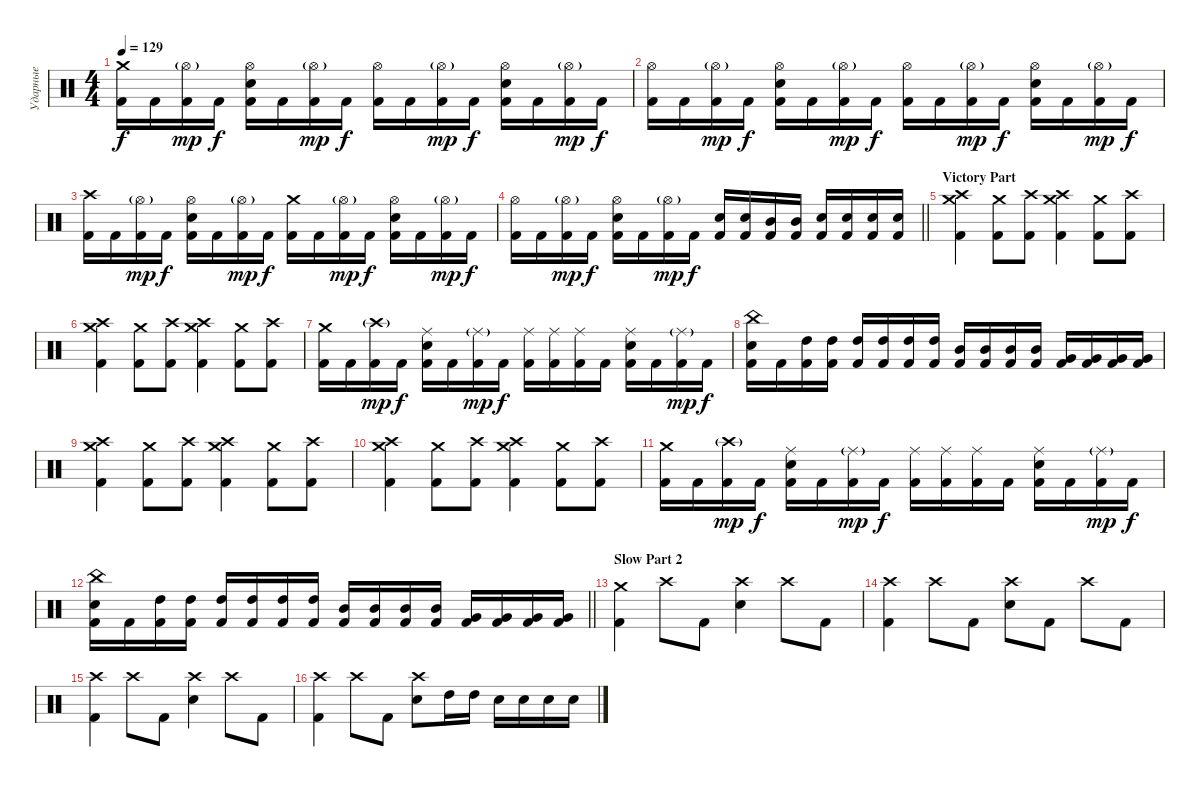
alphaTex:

\track ("Ударные" "Ударные") {instrument percussion}
\staff
\articulation defaults
\ts (4 4)
\tempo 129
\clef neutral
\ks c
("Crash medium (hit)" "Kick (hit) 2").16{dy f} "Kick (hit) 2".16 ("Hi-Hat (open)"{g} "Kick (hit) 2").16{dy mp} "Kick (hit) 2".16{dy f} ("Hi-Hat (open)" "Snare (hit) 2" "Kick (hit) 2").16 "Kick (hit) 2".16 ("Hi-Hat (open)"{g} "Kick (hit) 2").16{dy mp} "Kick (hit) 2".16{dy f} ("Hi-Hat (open)" "Kick (hit) 2").16 "Kick (hit) 2".16 ("Hi-Hat (open)"{g} "Kick (hit) 2").16{dy mp} "Kick (hit) 2".16{dy f} ("Hi-Hat (open)" "Snare (hit) 2" "Kick (hit) 2").16 "Kick (hit) 2".16 ("Hi-Hat (open)"{g} "Kick (hit) 2").16{dy mp} "Kick (hit) 2".16{dy f} |
("Hi-Hat (open)" "Kick (hit) 2").16 "Kick (hit) 2".16 ("Hi-Hat (open)"{g} "Kick (hit) 2").16{dy mp} "Kick (hit) 2".16{dy f} ("Hi-Hat (open)" "Snare (hit) 2" "Kick (hit) 2").16 "Kick (hit) 2".16 ("Hi-Hat (open)"{g} "Kick (hit) 2").16{dy mp} "Kick (hit) 2".16{dy f} ("Hi-Hat (open)" "Kick (hit) 2").16 "Kick (hit) 2".16 ("Hi-Hat (open)"{g} "Kick (hit) 2").16{dy mp} "Kick (hit) 2".16{dy f} ("Hi-Hat (open)" "Snare (hit) 2" "Kick (hit) 2").16 "Kick (hit) 2".16 ("Hi-Hat (open)"{g} "Kick (hit) 2").16{dy mp} "Kick (hit) 2".16{dy f} |
("Crash high (hit)" "Kick (hit) 2").16 "Kick (hit) 2".16 ("Hi-Hat (open)"{g} "Kick (hit) 2").16{dy mp} "Kick (hit) 2".16{dy f} ("Hi-Hat (open)" "Snare (hit) 2" "Kick (hit) 2").16 "Kick (hit) 2".16 ("Hi-Hat (open)"{g} "Kick (hit) 2").16{dy mp} "Kick (hit) 2".16{dy f} ("Crash medium (hit)" "Kick (hit) 2").16 "Kick (hit) 2".16 ("Hi-Hat (open)"{g} "Kick (hit) 2").16{dy mp} "Kick (hit) 2".16{dy f} ("Hi-Hat (open)" "Snare (hit) 2" "Kick (hit) 2").16 "Kick (hit) 2".16 ("Hi-Hat (open)"{g} "Kick (hit) 2").16{dy mp} "Kick (hit) 2".16{dy f} |
\barLineRight lightlight
("Hi-Hat (open)" "Kick (hit) 2").16 "Kick (hit) 2".16 ("Hi-Hat (open)"{g} "Kick (hit) 2").16{dy mp} "Kick (hit) 2".16{dy f} ("Hi-Hat (open)" "Snare (hit) 2" "Kick (hit) 2").16 "Kick (hit) 2".16 ("Hi-Hat (open)"{g} "Kick (hit) 2").16{dy mp} "Kick (hit) 2".16{dy f} ("Snare (hit) 2" "Kick (hit) 2").16 ("Snare (hit) 2" "Kick (hit) 2").16 ("Mid Tom (hit)" "Kick (hit) 2").16 ("Mid Tom (hit)" "Kick (hit) 2").16 ("Snare (hit) 2" "Kick (hit) 2").16 ("Snare (hit) 2" "Kick (hit) 2").16 ("Snare (hit) 2" "Kick (hit) 2").16 ("Snare (hit) 2" "Kick (hit) 2").16 |
\section ("" "Victory Part")
("Crash medium (hit)" "Crash high (hit)" "Kick (hit) 2").4 ("Crash medium (hit)" "Kick (hit) 2").8 ("Crash high (hit)" "Kick (hit) 2").8 ("Crash medium (hit)" "Crash high (hit)" "Kick (hit) 2").4 ("Crash medium (hit)" "Kick (hit) 2").8 ("Crash high (hit)" "Kick (hit) 2").8 |
("Crash medium (hit)" "Crash high (hit)" "Kick (hit) 2").4 ("Crash medium (hit)" "Kick (hit) 2").8 ("Crash high (hit)" "Kick (hit) 2").8 ("Crash medium (hit)" "Crash high (hit)" "Kick (hit) 2").4 ("Crash medium (hit)" "Kick (hit) 2").8 ("Crash high (hit)" "Kick (hit) 2").8 |
("Crash medium (hit)" "Kick (hit) 2").16 "Kick (hit) 2".16 ("Crash high (hit)"{g} "Kick (hit) 2").16{dy mp} "Kick (hit) 2".16{dy f} ("Ride (middle)" "Snare (hit) 2" "Kick (hit) 2").16 "Kick (hit) 2".16 ("Ride (middle)"{g} "Kick (hit) 2").16{dy mp} "Kick (hit) 2".16{dy f} ("Ride (middle)" "Kick (hit) 2").16 ("Ride (middle)" "Kick (hit) 2").16 ("Ride (middle)" "Kick (hit) 2").16 "Kick (hit) 2".16 ("Ride (middle)" "Snare (hit) 2" "Kick (hit) 2").16 "Kick (hit) 2".16 ("Ride (middle)"{g} "Kick (hit) 2").16{dy mp} "Kick (hit) 2".16{dy f} |
("China (hit)" "Snare (hit) 2" "Kick (hit) 2").16 "Kick (hit) 2".16 ("High Tom (hit)" "Kick (hit) 2").16 ("High Tom (hit)" "Kick (hit) 2").16 ("High Tom (hit)" "Kick (hit) 2").16 ("High Tom (hit)" "Kick (hit) 2").16 ("High Tom (hit)" "Kick (hit) 2").16 ("High Tom (hit)" "Kick (hit) 2").16 ("Mid Tom (hit)" "Kick (hit) 2").16 ("Mid Tom (hit)" "Kick (hit) 2").16 ("Mid Tom (hit)" "Kick (hit) 2").16 ("Mid Tom (hit)" "Kick (hit) 2").16 ("Very Low Tom (hit)" "Kick (hit) 2").16 ("Very Low Tom (hit)" "Kick (hit) 2").16 ("Very Low Tom (hit)" "Kick (hit) 2").16 ("Very Low Tom (hit)" "Kick (hit) 2").16 |
("Crash medium (hit)" "Crash high (hit)" "Kick (hit) 2").4 ("Crash medium (hit)" "Kick (hit) 2").8 ("Crash high (hit)" "Kick (hit) 2").8 ("Crash medium (hit)" "Crash high (hit)" "Kick (hit) 2").4 ("Crash medium (hit)" "Kick (hit) 2").8 ("Crash high (hit)" "Kick (hit) 2").8 |
("Crash medium (hit)" "Crash high (hit)" "Kick (hit) 2").4 ("Crash medium (hit)" "Kick (hit) 2").8 ("Crash high (hit)" "Kick (hit) 2").8 ("Crash medium (hit)" "Crash high (hit)" "Kick (hit) 2").4 ("Crash medium (hit)" "Kick (hit) 2").8 ("Crash high (hit)" "Kick (hit) 2").8 |
("Crash medium (hit)" "Kick (hit) 2").16 "Kick (hit) 2".16 ("Crash high (hit)"{g} "Kick (hit) 2").16{dy mp} "Kick (hit) 2".16{dy f} ("Ride (middle)" "Snare (hit) 2" "Kick (hit) 2").16 "Kick (hit) 2".16 ("Ride (middle)"{g} "Kick (hit) 2").16{dy mp} "Kick (hit) 2".16{dy f} ("Ride (middle)" "Kick (hit) 2").16 ("Ride (middle)" "Kick (hit) 2").16 ("Ride (middle)" "Kick (hit) 2").16 "Kick (hit) 2".16 ("Ride (middle)" "Snare (hit) 2" "Kick (hit) 2").16 "Kick (hit) 2".16 ("Ride (middle)"{g} "Kick (hit) 2").16{dy mp} "Kick (hit) 2".16{dy f} |
\barLineRight lightlight
("China (hit)" "Snare (hit) 2" "Kick (hit) 2").16 "Kick (hit) 2".16 ("High Tom (hit)" "Kick (hit) 2").16 ("High Tom (hit)" "Kick (hit) 2").16 ("High Tom (hit)" "Kick (hit) 2").16 ("High Tom (hit)" "Kick (hit) 2").16 ("High Tom (hit)" "Kick (hit) 2").16 ("High Tom (hit)" "Kick (hit) 2").16 ("Mid Tom (hit)" "Kick (hit) 2").16 ("Mid Tom (hit)" "Kick (hit) 2").16 ("Mid Tom (hit)" "Kick (hit) 2").16 ("Mid Tom (hit)" "Kick (hit) 2").16 ("Very Low Tom (hit)" "Kick (hit) 2").16 ("Very Low Tom (hit)" "Kick (hit) 2").16 ("Very Low Tom (hit)" "Kick (hit) 2").16 ("Very Low Tom (hit)" "Kick (hit) 2").16 |
\section ("" "Slow Part 2")
("Crash medium (hit)" "Kick (hit) 2").4 "Crash high (hit)".8 "Kick (hit) 2".8 ("Crash high (hit)" "Snare (hit) 2").4 "Crash high (hit)".8 "Kick (hit) 2".8 |
("Crash high (hit)" "Kick (hit) 2").4 "Crash high (hit)".8 "Kick (hit) 2".8 ("Crash high (hit)" "Snare (hit) 2").8 "Kick (hit) 2".8 "Crash high (hit)".8 "Kick (hit) 2".8 |
("Crash high (hit)" "Kick (hit) 2").4 "Crash high (hit)".8 "Kick (hit) 2".8 ("Crash high (hit)" "Snare (hit) 2").4 "Crash high (hit)".8 "Kick (hit) 2".8 |
("Crash high (hit)" "Kick (hit) 2").4 "Crash high (hit)".8 "Kick (hit) 2".8 ("Crash high (hit)" "Snare (hit) 2").8 "High Tom (hit)".16 "High Tom (hit)".16 "Snare (hit) 2".16 "Snare (hit) 2".16 "Snare (hit) 2".16 "Snare (hit) 2".16
